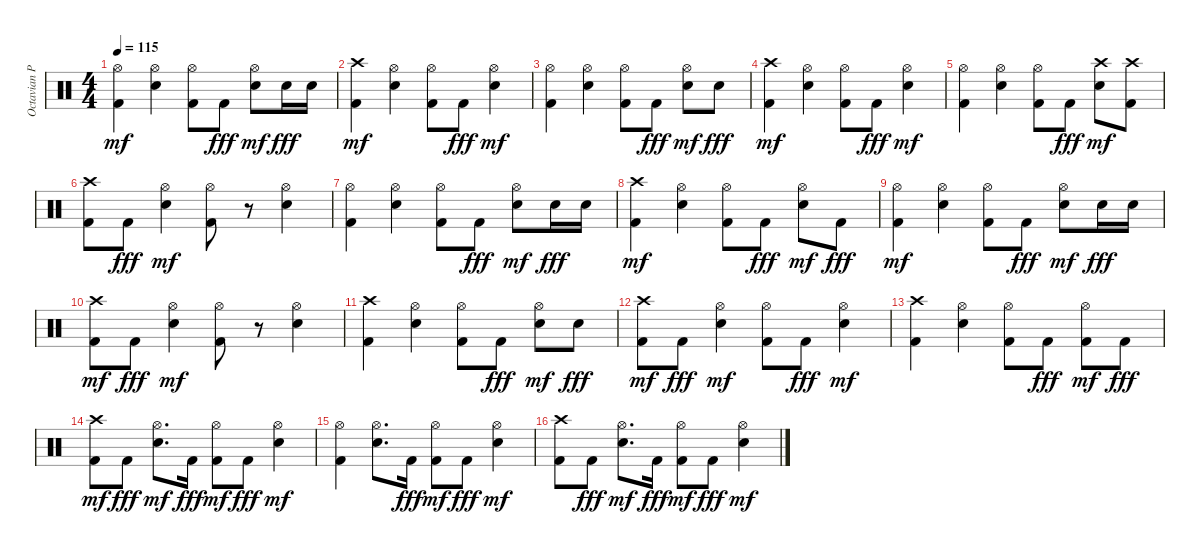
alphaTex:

\track ("Octavian Pilan" "Octavian P") {instrument percussion}
\staff {score}
\articulation defaults
\ts (4 4)
\tempo 115
\clef neutral
\ks c
("Kick (hit) 2" "Hi-Hat (open)").4{dy mf} ("Electric Snare (hit)" "Hi-Hat (open)").4 ("Kick (hit) 2" "Hi-Hat (open)").8 "Kick (hit) 2".8{dy fff} ("Electric Snare (hit)" "Hi-Hat (open)").8{dy mf} "Electric Snare (hit)".16{dy fff} "Electric Snare (hit)".16 |
("Kick (hit) 2" "Crash high (hit)").4{dy mf} ("Electric Snare (hit)" "Hi-Hat (open)").4 ("Kick (hit) 2" "Hi-Hat (open)").8 "Kick (hit) 2".8{dy fff} ("Electric Snare (hit)" "Hi-Hat (open)").4{dy mf} |
("Kick (hit) 2" "Hi-Hat (open)").4 ("Electric Snare (hit)" "Hi-Hat (open)").4 ("Kick (hit) 2" "Hi-Hat (open)").8 "Kick (hit) 2".8{dy fff} ("Electric Snare (hit)" "Hi-Hat (open)").8{dy mf} "Electric Snare (hit)".8{dy fff} |
("Kick (hit) 2" "Crash high (hit)").4{dy mf} ("Electric Snare (hit)" "Hi-Hat (open)").4 ("Kick (hit) 2" "Hi-Hat (open)").8 "Kick (hit) 2".8{dy fff} ("Electric Snare (hit)" "Hi-Hat (open)").4{dy mf} |
("Kick (hit) 2" "Hi-Hat (open)").4 ("Electric Snare (hit)" "Hi-Hat (open)").4 ("Kick (hit) 2" "Hi-Hat (open)").8 "Kick (hit) 2".8{dy fff} ("Electric Snare (hit)" "Crash high (hit)").8{dy mf} ("Kick (hit) 2" "Crash high (hit)").8 |
("Kick (hit) 2" "Crash high (hit)").8 "Kick (hit) 2".8{dy fff} ("Electric Snare (hit)" "Hi-Hat (open)").4{dy mf} ("Kick (hit) 2" "Hi-Hat (open)").8 r.8 ("Electric Snare (hit)" "Hi-Hat (open)").4 |
("Kick (hit) 2" "Hi-Hat (open)").4 ("Electric Snare (hit)" "Hi-Hat (open)").4 ("Kick (hit) 2" "Hi-Hat (open)").8 "Kick (hit) 2".8{dy fff} ("Electric Snare (hit)" "Hi-Hat (open)").8{dy mf} "Electric Snare (hit)".16{dy fff} "Electric Snare (hit)".16 |
("Kick (hit) 2" "Crash high (hit)").4{dy mf} ("Electric Snare (hit)" "Hi-Hat (open)").4 ("Kick (hit) 2" "Hi-Hat (open)").8 "Kick (hit) 2".8{dy fff} ("Electric Snare (hit)" "Hi-Hat (open)").8{dy mf} "Kick (hit) 2".8{dy fff} |
("Kick (hit) 2" "Hi-Hat (open)").4{dy mf} ("Electric Snare (hit)" "Hi-Hat (open)").4 ("Kick (hit) 2" "Hi-Hat (open)").8 "Kick (hit) 2".8{dy fff} ("Electric Snare (hit)" "Hi-Hat (open)").8{dy mf} "Electric Snare (hit)".16{dy fff} "Electric Snare (hit)".16 |
("Kick (hit) 2" "Crash high (hit)").8{dy mf} "Kick (hit) 2".8{dy fff} ("Electric Snare (hit)" "Hi-Hat (open)").4{dy mf} ("Kick (hit) 2" "Hi-Hat (open)").8 r.8 ("Electric Snare (hit)" "Hi-Hat (open)").4 |
("Kick (hit) 2" "Crash high (hit)").4 ("Electric Snare (hit)" "Hi-Hat (open)").4 ("Kick (hit) 2" "Hi-Hat (open)").8 "Kick (hit) 2".8{dy fff} ("Electric Snare (hit)" "Hi-Hat (open)").8{dy mf} "Electric Snare (hit)".8{dy fff} |
("Kick (hit) 2" "Crash high (hit)").8{dy mf} "Kick (hit) 2".8{dy fff} ("Electric Snare (hit)" "Hi-Hat (open)").4{dy mf} ("Kick (hit) 2" "Hi-Hat (open)").8 "Kick (hit) 2".8{dy fff} ("Electric Snare (hit)" "Hi-Hat (open)").4{dy mf} |
("Kick (hit) 2" "Crash high (hit)").4 ("Electric Snare (hit)" "Hi-Hat (open)").4 ("Kick (hit) 2" "Hi-Hat (open)").8 "Kick (hit) 2".8{dy fff} ("Kick (hit) 2" "Hi-Hat (open)").8{dy mf} "Kick (hit) 2".8{dy fff} |
("Kick (hit) 2" "Crash high (hit)").8{dy mf} "Kick (hit) 2".8{dy fff} ("Electric Snare (hit)" "Hi-Hat (open)").8{d dy mf} "Kick (hit) 2".16{dy fff} ("Kick (hit) 2" "Hi-Hat (open)").8{dy mf} "Kick (hit) 2".8{dy fff} ("Electric Snare (hit)" "Hi-Hat (open)").4{dy mf} |
("Kick (hit) 2" "Hi-Hat (open)").4 ("Electric Snare (hit)" "Hi-Hat (open)").8{d} "Kick (hit) 2".16{dy fff} ("Kick (hit) 2" "Hi-Hat (open)").8{dy mf} "Kick (hit) 2".8{dy fff} ("Electric Snare (hit)" "Hi-Hat (open)").4{dy mf} |
("Kick (hit) 2" "Crash high (hit)").8 "Kick (hit) 2".8{dy fff} ("Electric Snare (hit)" "Hi-Hat (open)").8{d dy mf} "Kick (hit) 2".16{dy fff} ("Kick (hit) 2" "Hi-Hat (open)").8{dy mf} "Kick (hit) 2".8{dy fff} ("Electric Snare (hit)" "Hi-Hat (open)").4{dy mf}
